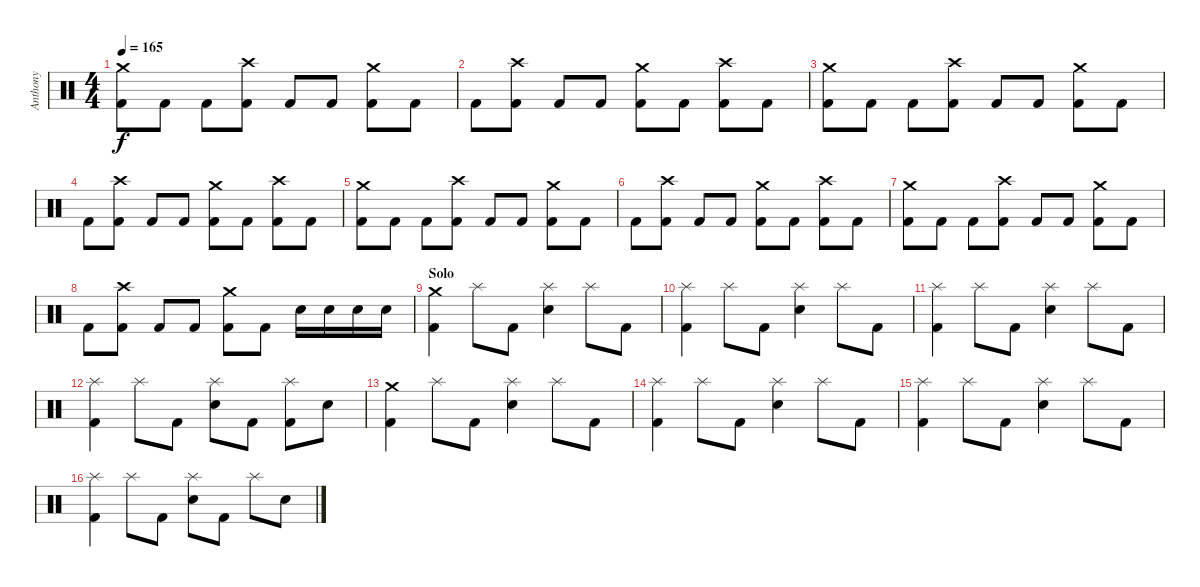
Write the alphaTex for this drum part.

\track ("Anthony" "Anthony") {instrument percussion}
\staff {score}
\articulation defaults
\ts (4 4)
\tempo 165
\clef neutral
\ks c
("Crash medium (hit)" "Kick (hit) 2").8{dy f} "Kick (hit) 2".8 "Kick (hit) 2".8 ("Crash high (hit)" "Kick (hit) 2").8 "Kick (hit) 2".8 "Kick (hit) 2".8 ("Crash medium (hit)" "Kick (hit) 2").8 "Kick (hit) 2".8 |
"Kick (hit) 2".8 ("Crash high (hit)" "Kick (hit) 2").8 "Kick (hit) 2".8 "Kick (hit) 2".8 ("Crash medium (hit)" "Kick (hit) 2").8 "Kick (hit) 2".8 ("Crash high (hit)" "Kick (hit) 2").8 "Kick (hit) 2".8 |
("Crash medium (hit)" "Kick (hit) 2").8 "Kick (hit) 2".8 "Kick (hit) 2".8 ("Crash high (hit)" "Kick (hit) 2").8 "Kick (hit) 2".8 "Kick (hit) 2".8 ("Crash medium (hit)" "Kick (hit) 2").8 "Kick (hit) 2".8 |
"Kick (hit) 2".8 ("Crash high (hit)" "Kick (hit) 2").8 "Kick (hit) 2".8 "Kick (hit) 2".8 ("Crash medium (hit)" "Kick (hit) 2").8 "Kick (hit) 2".8 ("Crash high (hit)" "Kick (hit) 2").8 "Kick (hit) 2".8 |
("Crash medium (hit)" "Kick (hit) 2").8 "Kick (hit) 2".8 "Kick (hit) 2".8 ("Crash high (hit)" "Kick (hit) 2").8 "Kick (hit) 2".8 "Kick (hit) 2".8 ("Crash medium (hit)" "Kick (hit) 2").8 "Kick (hit) 2".8 |
"Kick (hit) 2".8 ("Crash high (hit)" "Kick (hit) 2").8 "Kick (hit) 2".8 "Kick (hit) 2".8 ("Crash medium (hit)" "Kick (hit) 2").8 "Kick (hit) 2".8 ("Crash high (hit)" "Kick (hit) 2").8 "Kick (hit) 2".8 |
("Crash medium (hit)" "Kick (hit) 2").8 "Kick (hit) 2".8 "Kick (hit) 2".8 ("Crash high (hit)" "Kick (hit) 2").8 "Kick (hit) 2".8 "Kick (hit) 2".8 ("Crash medium (hit)" "Kick (hit) 2").8 "Kick (hit) 2".8 |
"Kick (hit) 2".8 ("Crash high (hit)" "Kick (hit) 2").8 "Kick (hit) 2".8 "Kick (hit) 2".8 ("Crash medium (hit)" "Kick (hit) 2").8 "Kick (hit) 2".8 "Electric Snare (hit)".16 "Electric Snare (hit)".16 "Electric Snare (hit)".16 "Electric Snare (hit)".16 |
\section ("" "Solo")
("Crash medium (hit)" "Kick (hit) 2").4 "Splash (hit)".8 "Kick (hit) 2".8 ("Splash (hit)" "Electric Snare (hit)").4 "Splash (hit)".8 "Kick (hit) 2".8 |
("Splash (hit)" "Kick (hit) 2").4 "Splash (hit)".8 "Kick (hit) 2".8 ("Splash (hit)" "Electric Snare (hit)").4 "Splash (hit)".8 "Kick (hit) 2".8 |
("Splash (hit)" "Kick (hit) 2").4 "Splash (hit)".8 "Kick (hit) 2".8 ("Splash (hit)" "Electric Snare (hit)").4 "Splash (hit)".8 "Kick (hit) 2".8 |
("Splash (hit)" "Kick (hit) 2").4 "Splash (hit)".8 "Kick (hit) 2".8 ("Splash (hit)" "Electric Snare (hit)").8 "Kick (hit) 2".8 ("Splash (hit)" "Kick (hit) 2").8 "Electric Snare (hit)".8 |
("Crash medium (hit)" "Kick (hit) 2").4 "Splash (hit)".8 "Kick (hit) 2".8 ("Splash (hit)" "Electric Snare (hit)").4 "Splash (hit)".8 "Kick (hit) 2".8 |
("Splash (hit)" "Kick (hit) 2").4 "Splash (hit)".8 "Kick (hit) 2".8 ("Splash (hit)" "Electric Snare (hit)").4 "Splash (hit)".8 "Kick (hit) 2".8 |
("Splash (hit)" "Kick (hit) 2").4 "Splash (hit)".8 "Kick (hit) 2".8 ("Splash (hit)" "Electric Snare (hit)").4 "Splash (hit)".8 "Kick (hit) 2".8 |
("Splash (hit)" "Kick (hit) 2").4 "Splash (hit)".8 "Kick (hit) 2".8 ("Splash (hit)" "Electric Snare (hit)").8 "Kick (hit) 2".8 "Splash (hit)".8 "Electric Snare (hit)".8
